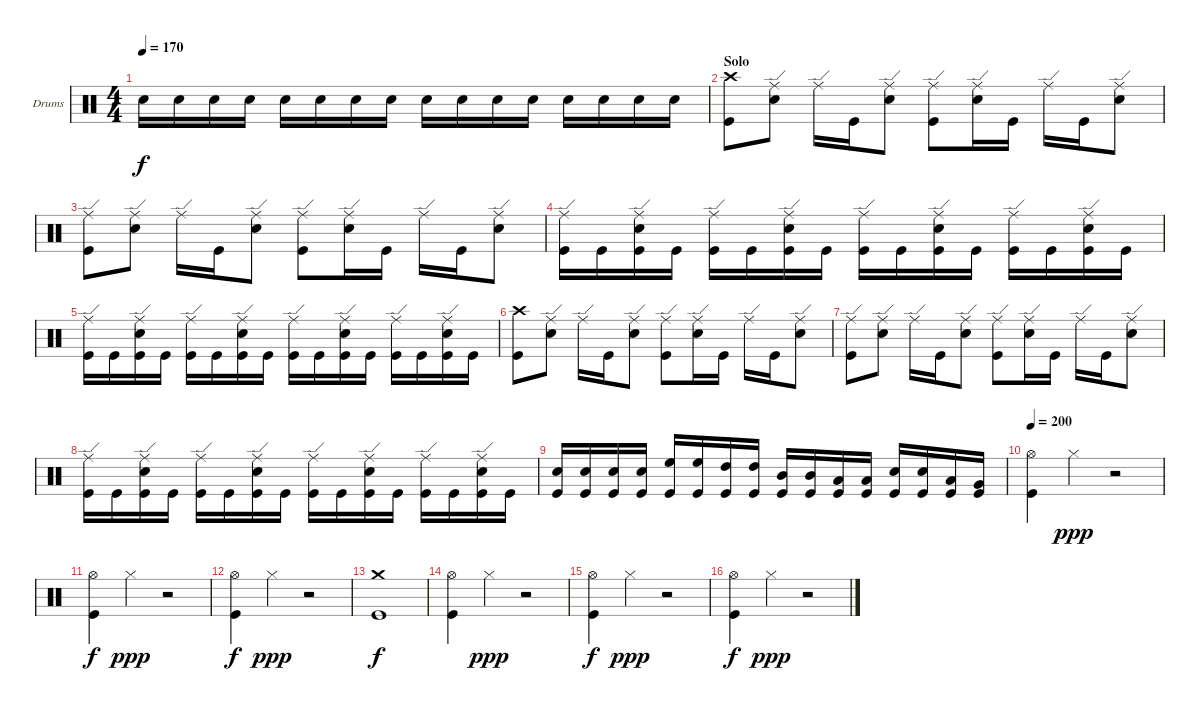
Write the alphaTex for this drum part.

\bracketExtendMode groupsimilarinstruments
\firstSystemTrackNameOrientation horizontal
\otherSystemsTrackNameOrientation horizontal
\track ("Drumkit" "Drums") {instrument percussion}
\staff {score}
\articulation defaults
\ts (4 4)
\tempo 170
\clef neutral
\ks aminor "Snare (hit) 2".16{dy f} "Snare (hit) 2".16 "Snare (hit) 2".16 "Snare (hit) 2".16 "Snare (hit) 2".16 "Snare (hit) 2".16 "Snare (hit) 2".16 "Snare (hit) 2".16 "Snare (hit) 2".16 "Snare (hit) 2".16 "Snare (hit) 2".16 "Snare (hit) 2".16 "Snare (hit) 2".16 "Snare (hit) 2".16 "Snare (hit) 2".16 "Snare (hit) 2".16
|
\section ("" "Solo")
("Kick (hit)" "Crash high (hit)").8 ("Snare (hit) 2" "Ride (edge)").8 "Ride (edge)".16 "Kick (hit)".16 ("Snare (hit) 2" "Ride (edge)").8 ("Kick (hit)" "Ride (edge)").8 ("Snare (hit) 2" "Ride (edge)").16 "Kick (hit)".16 "Ride (edge)".16 "Kick (hit)".16 ("Snare (hit) 2" "Ride (edge)").8 |
("Kick (hit)" "Ride (edge)").8 ("Snare (hit) 2" "Ride (edge)").8 "Ride (edge)".16 "Kick (hit)".16 ("Snare (hit) 2" "Ride (edge)").8 ("Kick (hit)" "Ride (edge)").8 ("Snare (hit) 2" "Ride (edge)").16 "Kick (hit)".16 "Ride (edge)".16 "Kick (hit)".16 ("Snare (hit) 2" "Ride (edge)").8 |
("Kick (hit)" "Ride (edge)").16 "Kick (hit)".16 ("Kick (hit)" "Snare (hit) 2" "Ride (edge)").16 "Kick (hit)".16 ("Kick (hit)" "Ride (edge)").16 "Kick (hit)".16 ("Kick (hit)" "Snare (hit) 2" "Ride (edge)").16 "Kick (hit)".16 ("Kick (hit)" "Ride (edge)").16 "Kick (hit)".16 ("Kick (hit)" "Snare (hit) 2" "Ride (edge)").16 "Kick (hit)".16 ("Kick (hit)" "Ride (edge)").16 "Kick (hit)".16 ("Kick (hit)" "Snare (hit) 2" "Ride (edge)").16 "Kick (hit)".16 |
("Kick (hit)" "Ride (edge)").16 "Kick (hit)".16 ("Kick (hit)" "Snare (hit) 2" "Ride (edge)").16 "Kick (hit)".16 ("Kick (hit)" "Ride (edge)").16 "Kick (hit)".16 ("Kick (hit)" "Snare (hit) 2" "Ride (edge)").16 "Kick (hit)".16 ("Kick (hit)" "Ride (edge)").16 "Kick (hit)".16 ("Kick (hit)" "Snare (hit) 2" "Ride (edge)").16 "Kick (hit)".16 ("Kick (hit)" "Ride (edge)").16 "Kick (hit)".16 ("Kick (hit)" "Snare (hit) 2" "Ride (edge)").16 "Kick (hit)".16 |
("Kick (hit)" "Crash high (hit)").8 ("Snare (hit) 2" "Ride (edge)").8 "Ride (edge)".16 "Kick (hit)".16 ("Snare (hit) 2" "Ride (edge)").8 ("Kick (hit)" "Ride (edge)").8 ("Snare (hit) 2" "Ride (edge)").16 "Kick (hit)".16 "Ride (edge)".16 "Kick (hit)".16 ("Snare (hit) 2" "Ride (edge)").8 |
("Kick (hit)" "Ride (edge)").8 ("Snare (hit) 2" "Ride (edge)").8 "Ride (edge)".16 "Kick (hit)".16 ("Snare (hit) 2" "Ride (edge)").8 ("Kick (hit)" "Ride (edge)").8 ("Snare (hit) 2" "Ride (edge)").16 "Kick (hit)".16 "Ride (edge)".16 "Kick (hit)".16 ("Snare (hit) 2" "Ride (edge)").8 |
("Kick (hit)" "Ride (edge)").16 "Kick (hit)".16 ("Kick (hit)" "Snare (hit) 2" "Ride (edge)").16 "Kick (hit)".16 ("Kick (hit)" "Ride (edge)").16 "Kick (hit)".16 ("Kick (hit)" "Snare (hit) 2" "Ride (edge)").16 "Kick (hit)".16 ("Kick (hit)" "Ride (edge)").16 "Kick (hit)".16 ("Kick (hit)" "Snare (hit) 2" "Ride (edge)").16 "Kick (hit)".16 ("Kick (hit)" "Ride (edge)").16 "Kick (hit)".16 ("Kick (hit)" "Snare (hit) 2" "Ride (edge)").16 "Kick (hit)".16 |
("Kick (hit)" "Snare (hit) 2").16 ("Kick (hit)" "Snare (hit) 2").16 ("Kick (hit)" "Snare (hit) 2").16 ("Kick (hit)" "Snare (hit) 2").16 ("Kick (hit)" "High Floor Tom (hit)").16 ("Kick (hit)" "High Floor Tom (hit)").16 ("Kick (hit)" "High Tom (hit)").16 ("Kick (hit)" "High Tom (hit)").16 ("Kick (hit)" "Mid Tom (hit)").16 ("Kick (hit)" "Mid Tom (hit)").16 ("Kick (hit)" "Low Tom (hit)").16 ("Kick (hit)" "Low Tom (hit)").16 ("Kick (hit)" "Snare (hit) 2").16 ("Kick (hit)" "Snare (hit) 2").16 ("Kick (hit)" "Low Tom (hit)").16 ("Kick (hit)" "Very Low Tom (hit)").16 |
\section ("" "")
\tempo 200
("Kick (hit)" "Hi-Hat (open)").4 "Hi-Hat (closed)".4{dy ppp} r.2 |
("Kick (hit)" "Hi-Hat (open)").4{dy f} "Hi-Hat (closed)".4{dy ppp} r.2 |
("Kick (hit)" "Hi-Hat (open)").4{dy f} "Hi-Hat (closed)".4{dy ppp} r.2 |
("Kick (hit)" "Crash medium (hit)").1{dy f} |
("Kick (hit)" "Hi-Hat (open)").4 "Hi-Hat (closed)".4{dy ppp} r.2 |
("Kick (hit)" "Hi-Hat (open)").4{dy f} "Hi-Hat (closed)".4{dy ppp} r.2 |
("Kick (hit)" "Hi-Hat (open)").4{dy f} "Hi-Hat (closed)".4{dy ppp} r.2
